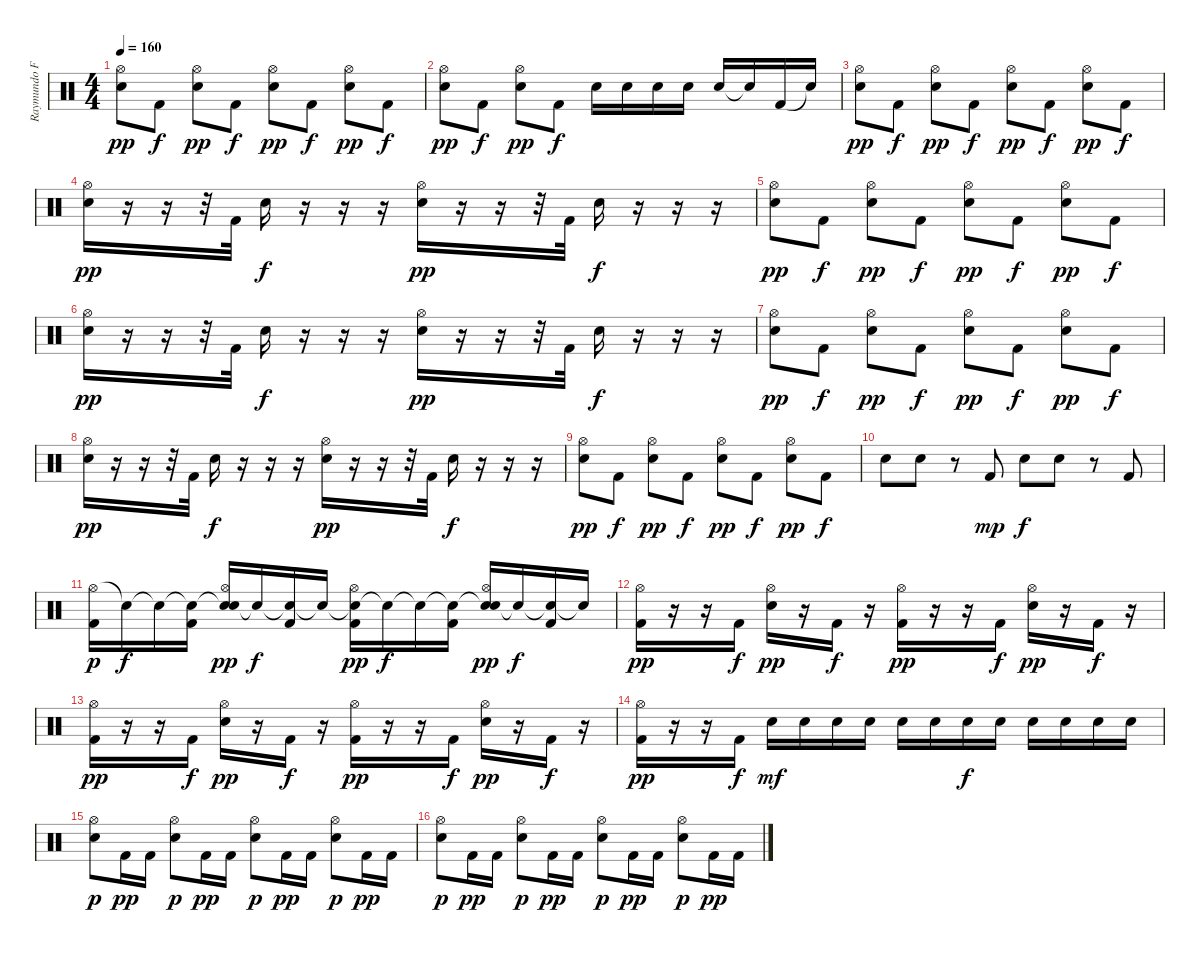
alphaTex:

\track ("Raymundo Fajardo (Batería)" "Raymundo F") {instrument percussion}
\staff {score}
\articulation defaults
\ts (4 4)
\tempo 160
\clef neutral
\ks c
("Electric Snare (hit)" "Hi-Hat (open)").8{dy pp} "Kick (hit) 2".8{dy f} ("Electric Snare (hit)" "Hi-Hat (open)").8{dy pp} "Kick (hit) 2".8{dy f} ("Electric Snare (hit)" "Hi-Hat (open)").8{dy pp} "Kick (hit) 2".8{dy f} ("Electric Snare (hit)" "Hi-Hat (open)").8{dy pp} "Kick (hit) 2".8{dy f} |
("Electric Snare (hit)" "Hi-Hat (open)").8{dy pp} "Kick (hit) 2".8{dy f} ("Electric Snare (hit)" "Hi-Hat (open)").8{dy pp} "Kick (hit) 2".8{dy f} "Electric Snare (hit)".16 "Electric Snare (hit)".16 "Electric Snare (hit)".16 "Electric Snare (hit)".16 "Electric Snare (hit)".16 "Electric Snare (hit)"{t}.16 "Kick (hit) 2".16 "Electric Snare (hit)"{t}.16 |
("Electric Snare (hit)" "Hi-Hat (open)").8{dy pp} "Kick (hit) 2".8{dy f} ("Electric Snare (hit)" "Hi-Hat (open)").8{dy pp} "Kick (hit) 2".8{dy f} ("Electric Snare (hit)" "Hi-Hat (open)").8{dy pp} "Kick (hit) 2".8{dy f} ("Electric Snare (hit)" "Hi-Hat (open)").8{dy pp} "Kick (hit) 2".8{dy f} |
("Electric Snare (hit)" "Hi-Hat (open)").16{dy pp} r.16 r.16 r.32 "Kick (hit) 2".32 "Electric Snare (hit)".16{dy f} r.16 r.16 r.16 ("Electric Snare (hit)" "Hi-Hat (open)").16{dy pp} r.16 r.16 r.32 "Kick (hit) 2".32 "Electric Snare (hit)".16{dy f} r.16 r.16 r.16 |
("Electric Snare (hit)" "Hi-Hat (open)").8{dy pp} "Kick (hit) 2".8{dy f} ("Electric Snare (hit)" "Hi-Hat (open)").8{dy pp} "Kick (hit) 2".8{dy f} ("Electric Snare (hit)" "Hi-Hat (open)").8{dy pp} "Kick (hit) 2".8{dy f} ("Electric Snare (hit)" "Hi-Hat (open)").8{dy pp} "Kick (hit) 2".8{dy f} |
("Electric Snare (hit)" "Hi-Hat (open)").16{dy pp} r.16 r.16 r.32 "Kick (hit) 2".32 "Electric Snare (hit)".16{dy f} r.16 r.16 r.16 ("Electric Snare (hit)" "Hi-Hat (open)").16{dy pp} r.16 r.16 r.32 "Kick (hit) 2".32 "Electric Snare (hit)".16{dy f} r.16 r.16 r.16 |
("Electric Snare (hit)" "Hi-Hat (open)").8{dy pp} "Kick (hit) 2".8{dy f} ("Electric Snare (hit)" "Hi-Hat (open)").8{dy pp} "Kick (hit) 2".8{dy f} ("Electric Snare (hit)" "Hi-Hat (open)").8{dy pp} "Kick (hit) 2".8{dy f} ("Electric Snare (hit)" "Hi-Hat (open)").8{dy pp} "Kick (hit) 2".8{dy f} |
("Electric Snare (hit)" "Hi-Hat (open)").16{dy pp} r.16 r.16 r.32 "Kick (hit) 2".32 "Electric Snare (hit)".16{dy f} r.16 r.16 r.16 ("Electric Snare (hit)" "Hi-Hat (open)").16{dy pp} r.16 r.16 r.32 "Kick (hit) 2".32 "Electric Snare (hit)".16{dy f} r.16 r.16 r.16 |
("Electric Snare (hit)" "Hi-Hat (open)").8{dy pp} "Kick (hit) 2".8{dy f} ("Electric Snare (hit)" "Hi-Hat (open)").8{dy pp} "Kick (hit) 2".8{dy f} ("Electric Snare (hit)" "Hi-Hat (open)").8{dy pp} "Kick (hit) 2".8{dy f} ("Electric Snare (hit)" "Hi-Hat (open)").8{dy pp} "Kick (hit) 2".8{dy f} |
"Electric Snare (hit)".8 "Electric Snare (hit)".8 r.8 "Kick (hit) 2".8{dy mp} "Electric Snare (hit)".8{dy f} "Electric Snare (hit)".8 r.8 "Kick (hit) 2".8 |
("Hi-Hat (open)" "Kick (hit) 2").16{dy p} "Snare (hit)"{t}.16{dy f} "Snare (hit)"{t}.16 ("Snare (hit)"{t} "Kick (hit) 2").16 ("Snare (hit)"{t} "Electric Snare (hit)" "Hi-Hat (open)").16{dy pp} "Snare (hit)"{t}.16{dy f} ("Snare (hit)"{t} "Kick (hit) 2").16 "Snare (hit)"{t}.16 ("Snare (hit)"{t} "Kick (hit) 2" "Hi-Hat (open)").16{dy pp} "Snare (hit)"{t}.16{dy f} "Snare (hit)"{t}.16 ("Snare (hit)"{t} "Kick (hit) 2").16 ("Snare (hit)"{t} "Electric Snare (hit)" "Hi-Hat (open)").16{dy pp} "Snare (hit)"{t}.16{dy f} ("Snare (hit)"{t} "Kick (hit) 2").16 "Snare (hit)"{t}.16 |
("Kick (hit) 2" "Hi-Hat (open)").16{dy pp} r.16 r.16 "Kick (hit) 2".16{dy f} ("Electric Snare (hit)" "Hi-Hat (open)").16{dy pp} r.16 "Kick (hit) 2".16{dy f} r.16 ("Kick (hit) 2" "Hi-Hat (open)").16{dy pp} r.16 r.16 "Kick (hit) 2".16{dy f} ("Electric Snare (hit)" "Hi-Hat (open)").16{dy pp} r.16 "Kick (hit) 2".16{dy f} r.16 |
("Kick (hit) 2" "Hi-Hat (open)").16{dy pp} r.16 r.16 "Kick (hit) 2".16{dy f} ("Electric Snare (hit)" "Hi-Hat (open)").16{dy pp} r.16 "Kick (hit) 2".16{dy f} r.16 ("Kick (hit) 2" "Hi-Hat (open)").16{dy pp} r.16 r.16 "Kick (hit) 2".16{dy f} ("Electric Snare (hit)" "Hi-Hat (open)").16{dy pp} r.16 "Kick (hit) 2".16{dy f} r.16 |
("Kick (hit) 2" "Hi-Hat (open)").16{dy pp} r.16 r.16 "Kick (hit) 2".16{dy f} "Electric Snare (hit)".16{dy mf} "Electric Snare (hit)".16 "Electric Snare (hit)".16 "Electric Snare (hit)".16 "Electric Snare (hit)".16 "Electric Snare (hit)".16 "Electric Snare (hit)".16{dy f} "Electric Snare (hit)".16 "Electric Snare (hit)".16 "Electric Snare (hit)".16 "Electric Snare (hit)".16 "Electric Snare (hit)".16 |
("Electric Snare (hit)" "Hi-Hat (open)").8{dy p} "Kick (hit) 2".16{dy pp} "Kick (hit) 2".16 ("Electric Snare (hit)" "Hi-Hat (open)").8{dy p} "Kick (hit) 2".16{dy pp} "Kick (hit) 2".16 ("Electric Snare (hit)" "Hi-Hat (open)").8{dy p} "Kick (hit) 2".16{dy pp} "Kick (hit) 2".16 ("Electric Snare (hit)" "Hi-Hat (open)").8{dy p} "Kick (hit) 2".16{dy pp} "Kick (hit) 2".16 |
("Electric Snare (hit)" "Hi-Hat (open)").8{dy p} "Kick (hit) 2".16{dy pp} "Kick (hit) 2".16 ("Electric Snare (hit)" "Hi-Hat (open)").8{dy p} "Kick (hit) 2".16{dy pp} "Kick (hit) 2".16 ("Electric Snare (hit)" "Hi-Hat (open)").8{dy p} "Kick (hit) 2".16{dy pp} "Kick (hit) 2".16 ("Electric Snare (hit)" "Hi-Hat (open)").8{dy p} "Kick (hit) 2".16{dy pp} "Kick (hit) 2".16
